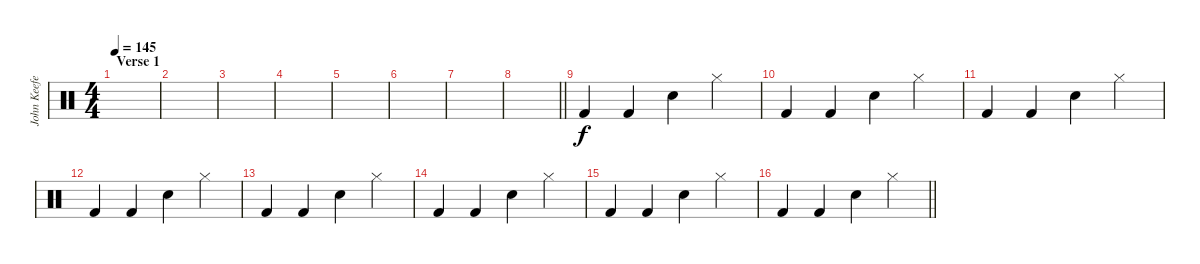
\track ("John Keefe (Percussion)" "John Keefe") {instrument percussion}
\staff {score}
\articulation defaults
\ts (4 4)
\section ("" "Verse 1")
\tempo 145
\clef neutral
\ks c
|
|
|
|
|
|
|
\barLineRight lightlight
|
"Kick (hit) 2".4 "Kick (hit) 2".4 "Snare (hit) 2".4 "Hi-Hat (closed)".4 |
"Kick (hit) 2".4 "Kick (hit) 2".4 "Snare (hit) 2".4 "Hi-Hat (closed)".4 |
"Kick (hit) 2".4 "Kick (hit) 2".4 "Snare (hit) 2".4 "Hi-Hat (closed)".4 |
"Kick (hit) 2".4 "Kick (hit) 2".4 "Snare (hit) 2".4 "Hi-Hat (closed)".4 |
"Kick (hit) 2".4 "Kick (hit) 2".4 "Snare (hit) 2".4 "Hi-Hat (closed)".4 |
"Kick (hit) 2".4 "Kick (hit) 2".4 "Snare (hit) 2".4 "Hi-Hat (closed)".4 |
"Kick (hit) 2".4 "Kick (hit) 2".4 "Snare (hit) 2".4 "Hi-Hat (closed)".4 |
\barLineRight lightlight "Kick (hit) 2".4 "Kick (hit) 2".4 "Snare (hit) 2".4 "Hi-Hat (closed)".4
